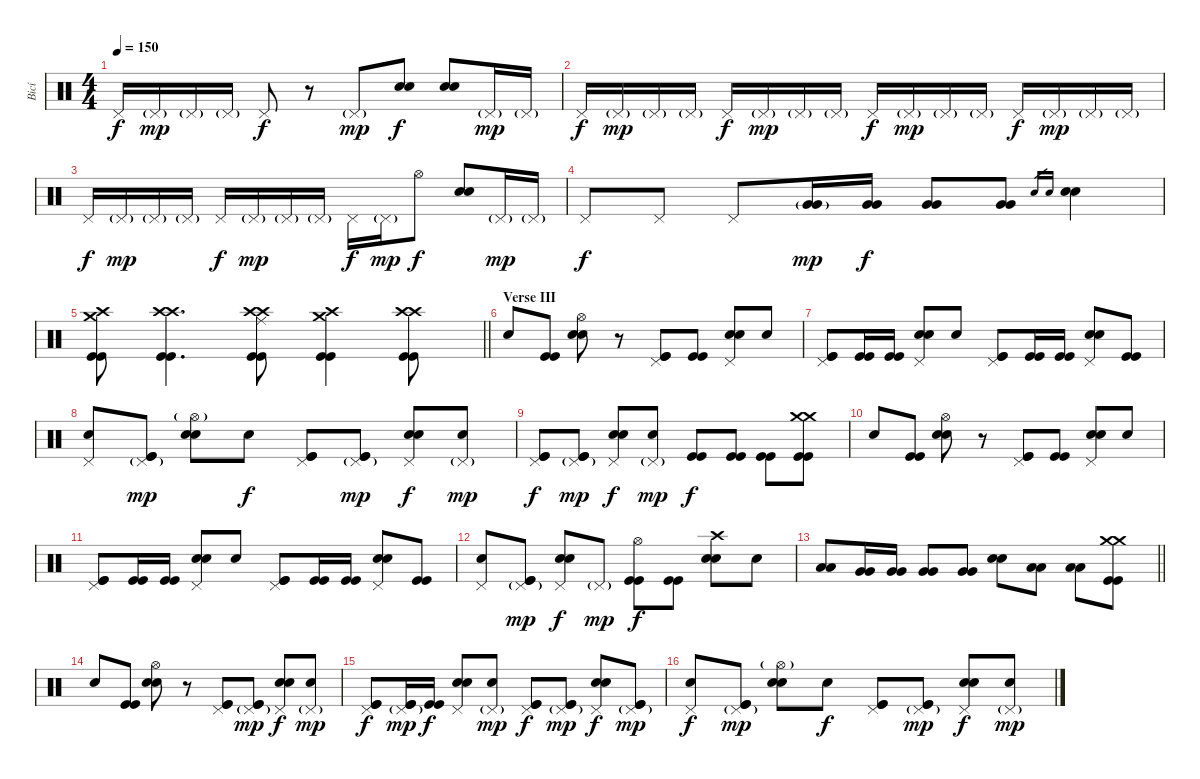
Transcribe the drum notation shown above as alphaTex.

\track ("Bicí" "Bicí") {instrument percussion}
\staff {score}
\articulation defaults
\ts (4 4)
\tempo 150
\clef neutral
\ks c "Pedal Hi-Hat (hit)".16{dy f} "Pedal Hi-Hat (hit)"{g}.16{dy mp} "Pedal Hi-Hat (hit)"{g}.16 "Pedal Hi-Hat (hit)"{g}.16 "Pedal Hi-Hat (hit)".8{dy f}
r.8 "Pedal Hi-Hat (hit)"{g}.8{dy mp} ("Electric Snare (hit)" "Electric Snare (hit)").8{dy f} ("Electric Snare (hit)" "Electric Snare (hit)").8 "Pedal Hi-Hat (hit)"{g}.16{dy mp} "Pedal Hi-Hat (hit)"{g}.16 |
"Pedal Hi-Hat (hit)".16{dy f} "Pedal Hi-Hat (hit)"{g}.16{dy mp} "Pedal Hi-Hat (hit)"{g}.16 "Pedal Hi-Hat (hit)"{g}.16 "Pedal Hi-Hat (hit)".16{dy f} "Pedal Hi-Hat (hit)"{g}.16{dy mp} "Pedal Hi-Hat (hit)"{g}.16 "Pedal Hi-Hat (hit)"{g}.16 "Pedal Hi-Hat (hit)".16{dy f} "Pedal Hi-Hat (hit)"{g}.16{dy mp} "Pedal Hi-Hat (hit)"{g}.16 "Pedal Hi-Hat (hit)"{g}.16 "Pedal Hi-Hat (hit)".16{dy f} "Pedal Hi-Hat (hit)"{g}.16{dy mp} "Pedal Hi-Hat (hit)"{g}.16 "Pedal Hi-Hat (hit)"{g}.16 |
"Pedal Hi-Hat (hit)".16{dy f} "Pedal Hi-Hat (hit)"{g}.16{dy mp} "Pedal Hi-Hat (hit)"{g}.16 "Pedal Hi-Hat (hit)"{g}.16 "Pedal Hi-Hat (hit)".16{dy f} "Pedal Hi-Hat (hit)"{g}.16{dy mp} "Pedal Hi-Hat (hit)"{g}.16 "Pedal Hi-Hat (hit)"{g}.16 "Pedal Hi-Hat (hit)".16{dy f} "Pedal Hi-Hat (hit)"{g}.16{dy mp} "Hi-Hat (open)".8{dy f} ("Electric Snare (hit)" "Electric Snare (hit)").8 "Pedal Hi-Hat (hit)"{g}.16{dy mp} "Pedal Hi-Hat (hit)"{g}.16 |
"Pedal Hi-Hat (hit)".8{dy f} "Pedal Hi-Hat (hit)".8 "Pedal Hi-Hat (hit)".8 ("Very Low Tom (hit)"{g} "Very Low Tom (hit)"{g}).16{dy mp} ("Very Low Tom (hit)" "Very Low Tom (hit)").16{dy f} ("Very Low Tom (hit)" "Very Low Tom (hit)").8 ("Very Low Tom (hit)" "Very Low Tom (hit)").8 "Electric Snare (hit)".16{gr} "Electric Snare (hit)".16{gr} ("Electric Snare (hit)" "Electric Snare (hit)").4 |
\barLineRight lightlight
("Crash high (hit)" "Crash medium (hit)" "Kick (hit)" "Kick (hit)").8 ("Crash high (hit)" "Crash high (hit)" "Kick (hit)" "Kick (hit)").4{d} ("Crash high (hit)" "Crash high (hit)" "Ride (middle)" "Kick (hit)" "Kick (hit)").8 ("Crash high (hit)" "Crash medium (hit)" "Kick (hit)" "Kick (hit)").4 ("Crash high (hit)" "Crash high (hit)" "Kick (hit)" "Kick (hit)").8 |
\section ("" "Verse III")
"Snare (hit)".8 ("Kick (hit)" "Kick (hit)").8 ("Hi-Hat (open)" "Electric Snare (hit)" "Electric Snare (hit)").8 r.8 ("Pedal Hi-Hat (hit)" "Kick (hit)" "Kick (hit)").8 ("Kick (hit)" "Kick (hit)").8 ("Pedal Hi-Hat (hit)" "Electric Snare (hit)" "Electric Snare (hit)").8 "Snare (hit)".8 |
("Pedal Hi-Hat (hit)" "Kick (hit)" "Kick (hit)").8 ("Kick (hit)" "Kick (hit)").16 ("Kick (hit)" "Kick (hit)").16 ("Pedal Hi-Hat (hit)" "Electric Snare (hit)" "Electric Snare (hit)").8 "Snare (hit)".8 ("Pedal Hi-Hat (hit)" "Kick (hit)" "Kick (hit)").8 ("Kick (hit)" "Kick (hit)").16 ("Kick (hit)" "Kick (hit)").16 ("Pedal Hi-Hat (hit)" "Electric Snare (hit)" "Electric Snare (hit)").8 ("Kick (hit)" "Kick (hit)").8 |
("Pedal Hi-Hat (hit)" "Snare (hit)").8 ("Pedal Hi-Hat (hit)"{g} "Kick (hit)" "Kick (hit)").8{dy mp} ("Hi-Hat (open)"{g} "Electric Snare (hit)" "Electric Snare (hit)").8 "Snare (hit)".8{dy f} ("Pedal Hi-Hat (hit)" "Kick (hit)" "Kick (hit)").8 ("Pedal Hi-Hat (hit)"{g} "Kick (hit)" "Kick (hit)").8{dy mp} ("Pedal Hi-Hat (hit)" "Electric Snare (hit)" "Electric Snare (hit)").8{dy f} ("Pedal Hi-Hat (hit)"{g} "Snare (hit)").8{dy mp} |
("Pedal Hi-Hat (hit)" "Kick (hit)" "Kick (hit)").8{dy f} ("Pedal Hi-Hat (hit)"{g} "Kick (hit)" "Kick (hit)").8{dy mp} ("Pedal Hi-Hat (hit)" "Electric Snare (hit)" "Electric Snare (hit)").8{dy f} ("Pedal Hi-Hat (hit)"{g} "Snare (hit)").8{dy mp} ("Kick (hit)" "Kick (hit)").8{dy f} ("Kick (hit)" "Kick (hit)").8 ("Kick (hit)" "Kick (hit)").8 ("Crash medium (hit)" "Crash medium (hit)" "Kick (hit)" "Kick (hit)").8 |
"Snare (hit)".8 ("Kick (hit)" "Kick (hit)").8 ("Hi-Hat (open)" "Electric Snare (hit)" "Electric Snare (hit)").8 r.8 ("Pedal Hi-Hat (hit)" "Kick (hit)" "Kick (hit)").8 ("Kick (hit)" "Kick (hit)").8 ("Pedal Hi-Hat (hit)" "Electric Snare (hit)" "Electric Snare (hit)").8 "Snare (hit)".8 |
("Pedal Hi-Hat (hit)" "Kick (hit)" "Kick (hit)").8 ("Kick (hit)" "Kick (hit)").16 ("Kick (hit)" "Kick (hit)").16 ("Pedal Hi-Hat (hit)" "Electric Snare (hit)" "Electric Snare (hit)").8 "Snare (hit)".8 ("Pedal Hi-Hat (hit)" "Kick (hit)" "Kick (hit)").8 ("Kick (hit)" "Kick (hit)").16 ("Kick (hit)" "Kick (hit)").16 ("Pedal Hi-Hat (hit)" "Electric Snare (hit)" "Electric Snare (hit)").8 ("Kick (hit)" "Kick (hit)").8 |
("Pedal Hi-Hat (hit)" "Snare (hit)").8 ("Pedal Hi-Hat (hit)"{g} "Kick (hit)" "Kick (hit)").8{dy mp} ("Pedal Hi-Hat (hit)" "Electric Snare (hit)" "Electric Snare (hit)").8{dy f} "Pedal Hi-Hat (hit)"{g}.8{dy mp} ("Hi-Hat (open)" "Kick (hit)" "Kick (hit)").8{dy f} ("Kick (hit)" "Kick (hit)").8 ("Crash high (hit)" "Electric Snare (hit)" "Electric Snare (hit)").8 "Snare (hit)".8 |
\barLineRight lightlight
("Low Tom (hit)" "Low Tom (hit)").8 ("Very Low Tom (hit)" "Very Low Tom (hit)").16 ("Very Low Tom (hit)" "Very Low Tom (hit)").16 ("Very Low Tom (hit)" "Very Low Tom (hit)").8 ("Very Low Tom (hit)" "Very Low Tom (hit)").8 ("Electric Snare (hit)" "Electric Snare (hit)").8 ("Low Floor Tom (hit)" "Low Floor Tom (hit)").8 ("Low Floor Tom (hit)" "Low Floor Tom (hit)").8 ("Crash medium (hit)" "Crash medium (hit)" "Kick (hit)" "Kick (hit)").8 |
"Snare (hit)".8 ("Kick (hit)" "Kick (hit)").8 ("Hi-Hat (open)" "Electric Snare (hit)" "Electric Snare (hit)").8 r.8 ("Pedal Hi-Hat (hit)" "Kick (hit)" "Kick (hit)").8 ("Pedal Hi-Hat (hit)"{g} "Kick (hit)" "Kick (hit)").8{dy mp} ("Pedal Hi-Hat (hit)" "Electric Snare (hit)" "Electric Snare (hit)").8{dy f} ("Pedal Hi-Hat (hit)"{g} "Snare (hit)").8{dy mp} |
("Pedal Hi-Hat (hit)" "Kick (hit)" "Kick (hit)").8{dy f} ("Pedal Hi-Hat (hit)"{g} "Kick (hit)" "Kick (hit)").16{dy mp} ("Kick (hit)" "Kick (hit)").16{dy f} ("Pedal Hi-Hat (hit)" "Electric Snare (hit)" "Electric Snare (hit)").8 ("Pedal Hi-Hat (hit)"{g} "Snare (hit)").8{dy mp} ("Pedal Hi-Hat (hit)" "Kick (hit)" "Kick (hit)").8{dy f} ("Pedal Hi-Hat (hit)"{g} "Kick (hit)" "Kick (hit)").8{dy mp} ("Pedal Hi-Hat (hit)" "Electric Snare (hit)" "Electric Snare (hit)").8{dy f} ("Pedal Hi-Hat (hit)"{g} "Kick (hit)" "Kick (hit)").8{dy mp} |
("Pedal Hi-Hat (hit)" "Snare (hit)").8{dy f} ("Pedal Hi-Hat (hit)"{g} "Kick (hit)" "Kick (hit)").8{dy mp} ("Hi-Hat (open)"{g} "Electric Snare (hit)" "Electric Snare (hit)").8 "Snare (hit)".8{dy f} ("Pedal Hi-Hat (hit)" "Kick (hit)" "Kick (hit)").8 ("Pedal Hi-Hat (hit)"{g} "Kick (hit)" "Kick (hit)").8{dy mp} ("Pedal Hi-Hat (hit)" "Electric Snare (hit)" "Electric Snare (hit)").8{dy f} ("Pedal Hi-Hat (hit)"{g} "Snare (hit)").8{dy mp}
